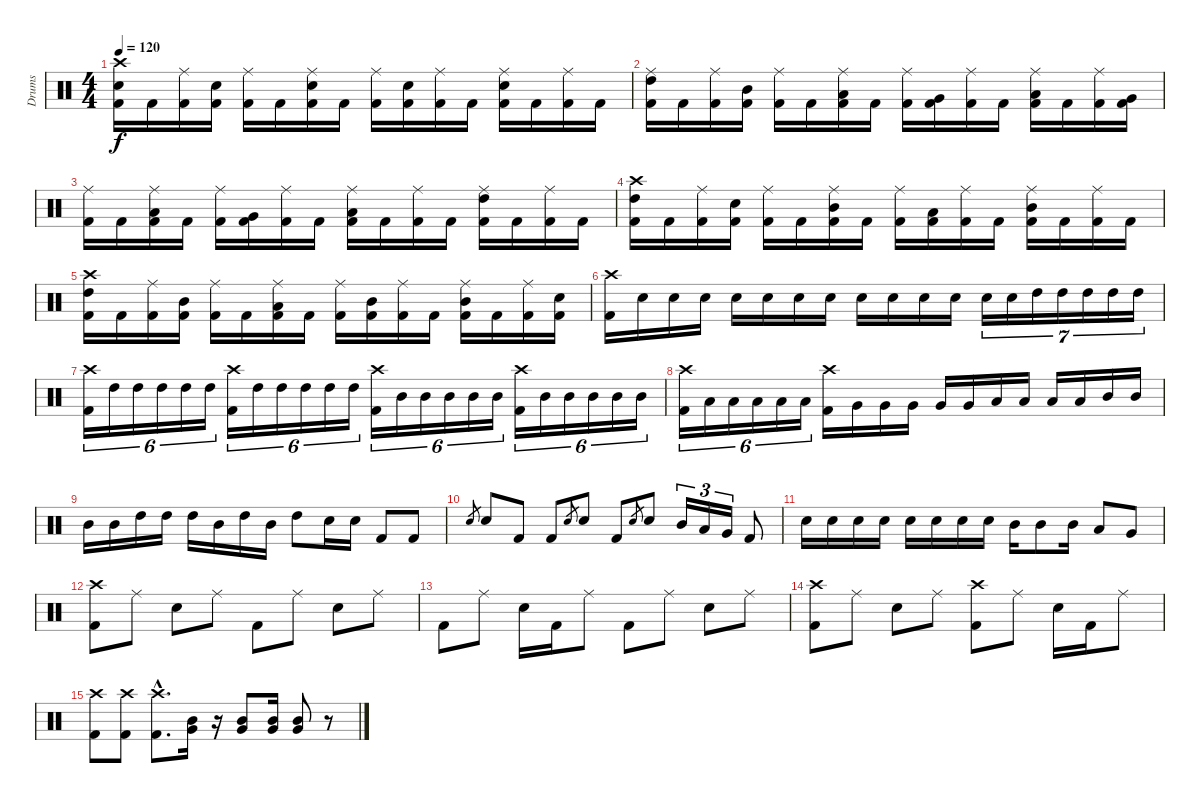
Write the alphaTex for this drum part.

\track ("Drums" "Drums") {instrument percussion}
\staff {score}
\articulation defaults
\ts (4 4)
\tempo 120
\clef neutral
\ks c
("Crash high (hit)" "Electric Snare (hit)" "Kick (hit) 2").16{dy f} "Kick (hit) 2".16 ("Ride (middle)" "Kick (hit) 2").16 ("Electric Snare (hit)" "Kick (hit) 2").16 ("Ride (middle)" "Kick (hit) 2").16 "Kick (hit) 2".16 ("Ride (middle)" "Electric Snare (hit)" "Kick (hit) 2").16 "Kick (hit) 2".16 ("Ride (middle)" "Kick (hit) 2").16 ("Electric Snare (hit)" "Kick (hit) 2").16 ("Ride (middle)" "Kick (hit) 2").16 "Kick (hit) 2".16 ("Ride (middle)" "Electric Snare (hit)" "Kick (hit) 2").16 "Kick (hit) 2".16 ("Ride (middle)" "Kick (hit) 2").16 "Kick (hit) 2".16 |
("Ride (middle)" "High Tom (hit)" "Kick (hit) 2").16 "Kick (hit) 2".16 ("Ride (middle)" "Kick (hit) 2").16 ("Mid Tom (hit)" "Kick (hit) 2").16 ("Ride (middle)" "Kick (hit) 2").16 "Kick (hit) 2".16 ("Ride (middle)" "Low Tom (hit)" "Kick (hit) 2").16 "Kick (hit) 2".16 ("Ride (middle)" "Kick (hit) 2").16 ("Very Low Tom (hit)" "Kick (hit) 2").16 ("Ride (middle)" "Kick (hit) 2").16 "Kick (hit) 2".16 ("Ride (middle)" "Low Tom (hit)" "Kick (hit) 2").16 "Kick (hit) 2".16 ("Ride (middle)" "Kick (hit) 2").16 ("Very Low Tom (hit)" "Kick (hit) 2").16 |
("Ride (middle)" "Kick (hit) 2").16 "Kick (hit) 2".16 ("Ride (middle)" "Low Tom (hit)" "Kick (hit) 2").16 "Kick (hit) 2".16 ("Ride (middle)" "Kick (hit) 2").16 ("Very Low Tom (hit)" "Kick (hit) 2").16 ("Ride (middle)" "Kick (hit) 2").16 "Kick (hit) 2".16 ("Ride (middle)" "Low Tom (hit)" "Kick (hit) 2").16 "Kick (hit) 2".16 ("Ride (middle)" "Kick (hit) 2").16 "Kick (hit) 2".16 ("Ride (middle)" "High Tom (hit)" "Kick (hit) 2").16 "Kick (hit) 2".16 ("Ride (middle)" "Kick (hit) 2").16 "Kick (hit) 2".16 |
("Crash high (hit)" "High Tom (hit)" "Kick (hit) 2").16 "Kick (hit) 2".16 ("Ride (middle)" "Kick (hit) 2").16 ("Electric Snare (hit)" "Kick (hit) 2").16 ("Ride (middle)" "Kick (hit) 2").16 "Kick (hit) 2".16 ("Ride (middle)" "Mid Tom (hit)" "Kick (hit) 2").16 "Kick (hit) 2".16 ("Ride (middle)" "Kick (hit) 2").16 ("Low Tom (hit)" "Kick (hit) 2").16 ("Ride (middle)" "Kick (hit) 2").16 "Kick (hit) 2".16 ("Ride (middle)" "Mid Tom (hit)" "Kick (hit) 2").16 "Kick (hit) 2".16 ("Ride (middle)" "Kick (hit) 2").16 "Kick (hit) 2".16 |
("Crash high (hit)" "High Tom (hit)" "Kick (hit) 2").16 "Kick (hit) 2".16 ("Ride (middle)" "Kick (hit) 2").16 ("Mid Tom (hit)" "Kick (hit) 2").16 ("Ride (middle)" "Kick (hit) 2").16 "Kick (hit) 2".16 ("Ride (middle)" "Low Tom (hit)" "Kick (hit) 2").16 "Kick (hit) 2".16 ("Ride (middle)" "Kick (hit) 2").16 ("Mid Tom (hit)" "Kick (hit) 2").16 ("Ride (middle)" "Kick (hit) 2").16 "Kick (hit) 2".16 ("Ride (middle)" "Mid Tom (hit)" "Kick (hit) 2").16 "Kick (hit) 2".16 ("Ride (middle)" "Kick (hit) 2").16 ("Electric Snare (hit)" "Kick (hit) 2").16 |
("Crash high (hit)" "Kick (hit) 2").16 "Electric Snare (hit)".16 "Electric Snare (hit)".16 "Electric Snare (hit)".16 "Electric Snare (hit)".16 "Electric Snare (hit)".16 "Electric Snare (hit)".16 "Electric Snare (hit)".16 "Electric Snare (hit)".16 "Electric Snare (hit)".16 "Electric Snare (hit)".16 "Electric Snare (hit)".16 "Electric Snare (hit)".16{tu (7 4)} "Electric Snare (hit)".16{tu (7 4)} "High Tom (hit)".16{tu (7 4)} "High Tom (hit)".16{tu (7 4)} "High Tom (hit)".16{tu (7 4)} "High Tom (hit)".16{tu (7 4)} "High Tom (hit)".16{tu (7 4)} |
("Crash high (hit)" "Kick (hit) 2").16{tu (6 4)} "High Tom (hit)".16{tu (6 4)} "High Tom (hit)".16{tu (6 4)} "High Tom (hit)".16{tu (6 4)} "High Tom (hit)".16{tu (6 4)} "High Tom (hit)".16{tu (6 4)} ("Crash high (hit)" "Kick (hit) 2").16{tu (6 4)} "High Tom (hit)".16{tu (6 4)} "High Tom (hit)".16{tu (6 4)} "High Tom (hit)".16{tu (6 4)} "High Tom (hit)".16{tu (6 4)} "High Tom (hit)".16{tu (6 4)} ("Crash high (hit)" "Kick (hit) 2").16{tu (6 4)} "Mid Tom (hit)".16{tu (6 4)} "Mid Tom (hit)".16{tu (6 4)} "Mid Tom (hit)".16{tu (6 4)} "Mid Tom (hit)".16{tu (6 4)} "Mid Tom (hit)".16{tu (6 4)} ("Crash high (hit)" "Kick (hit) 2").16{tu (6 4)} "Mid Tom (hit)".16{tu (6 4)} "Mid Tom (hit)".16{tu (6 4)} "Mid Tom (hit)".16{tu (6 4)} "Mid Tom (hit)".16{tu (6 4)} "Mid Tom (hit)".16{tu (6 4)} |
("Crash high (hit)" "Kick (hit) 2").16{tu (6 4)} "Low Tom (hit)".16{tu (6 4)} "Low Tom (hit)".16{tu (6 4)} "Low Tom (hit)".16{tu (6 4)} "Low Tom (hit)".16{tu (6 4)} "Low Tom (hit)".16{tu (6 4)} ("Crash high (hit)" "Kick (hit) 2").16 "Very Low Tom (hit)".16 "Very Low Tom (hit)".16 "Very Low Tom (hit)".16 "Very Low Tom (hit)".16 "Very Low Tom (hit)".16 "Low Tom (hit)".16 "Low Tom (hit)".16 "Low Tom (hit)".16 "Low Tom (hit)".16 "Mid Tom (hit)".16 "Mid Tom (hit)".16 |
"Mid Tom (hit)".16 "Mid Tom (hit)".16 "High Tom (hit)".16 "High Tom (hit)".16 "High Tom (hit)".16 "Mid Tom (hit)".16 "High Tom (hit)".16 "Mid Tom (hit)".16 "High Tom (hit)".8 "Electric Snare (hit)".16 "Electric Snare (hit)".16 "Kick (hit) 2".8 "Kick (hit) 2".8 |
"Electric Snare (hit)".8{gr} "Electric Snare (hit)".8 "Kick (hit) 2".8 "Kick (hit) 2".8 "Electric Snare (hit)".8{gr} "Electric Snare (hit)".8 "Kick (hit) 2".8 "Electric Snare (hit)".8{gr} "Electric Snare (hit)".8 "Mid Tom (hit)".16{tu (3 2)} "Low Tom (hit)".16{tu (3 2)} "Very Low Tom (hit)".16{tu (3 2)} "Kick (hit) 2".8 |
"Electric Snare (hit)".16 "Electric Snare (hit)".16 "Electric Snare (hit)".16 "Electric Snare (hit)".16 "Electric Snare (hit)".16 "Electric Snare (hit)".16 "Electric Snare (hit)".16 "Electric Snare (hit)".16 "Mid Tom (hit)".16 "Mid Tom (hit)".8 "Mid Tom (hit)".16 "Low Tom (hit)".8 "Very Low Tom (hit)".8 |
("Crash high (hit)" "Kick (hit) 2").8 "Ride (middle)".8 "Electric Snare (hit)".8 "Ride (middle)".8 "Kick (hit) 2".8 "Ride (middle)".8 "Electric Snare (hit)".8 "Ride (middle)".8 |
"Kick (hit) 2".8 "Ride (middle)".8 "Electric Snare (hit)".16 "Kick (hit) 2".16 "Ride (middle)".8 "Kick (hit) 2".8 "Ride (middle)".8 "Electric Snare (hit)".8 "Ride (middle)".8 |
("Crash high (hit)" "Kick (hit) 2").8 "Ride (middle)".8 "Electric Snare (hit)".8 "Ride (middle)".8 ("Crash high (hit)" "Kick (hit) 2").8 "Ride (middle)".8 "Electric Snare (hit)".16 "Kick (hit) 2".16 "Ride (middle)".8 |
("Crash high (hit)" "Kick (hit) 2").8 ("Crash high (hit)" "Kick (hit) 2").8 ("Crash high (hit)"{hac} "Kick (hit) 2"{hac}).8{d} ("Mid Tom (hit)" "Very Low Tom (hit)").16 r.16 ("Mid Tom (hit)" "Very Low Tom (hit)").8 ("Mid Tom (hit)" "Very Low Tom (hit)").16 ("Mid Tom (hit)" "Very Low Tom (hit)").8 r.8
